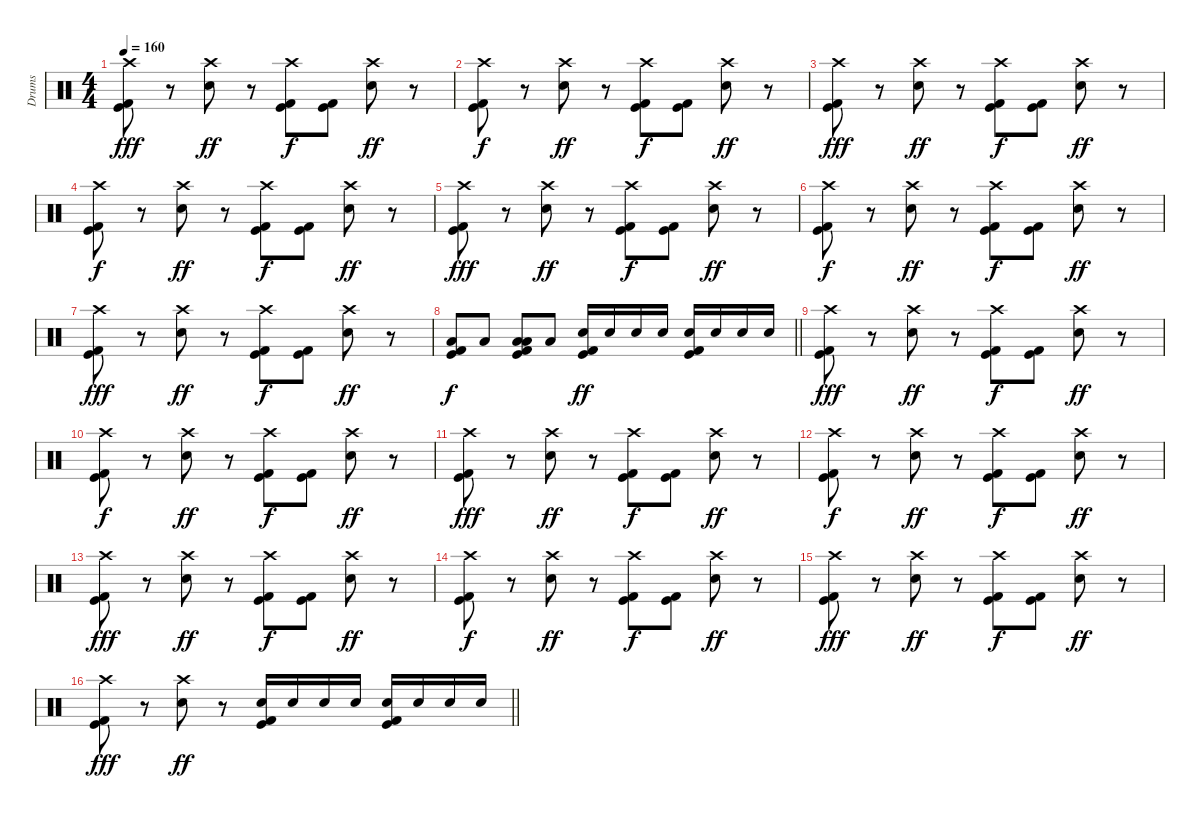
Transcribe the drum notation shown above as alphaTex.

\track ("Drums" "Drums") {instrument percussion}
\staff {score}
\articulation defaults
\ts (4 4)
\tempo 160
\clef neutral
\ks c
("Crash high (hit)" "Kick (hit)" "Kick (hit) 2").8{dy fff} r.8 ("Crash high (hit)" "Snare (hit) 2").8{dy ff} r.8 ("Crash high (hit)" "Kick (hit)" "Kick (hit) 2").8{dy f} ("Kick (hit)" "Kick (hit) 2").8 ("Crash high (hit)" "Snare (hit) 2").8{dy ff} r.8 |
("Crash high (hit)" "Kick (hit)" "Kick (hit) 2").8{dy f} r.8 ("Crash high (hit)" "Snare (hit) 2").8{dy ff} r.8 ("Crash high (hit)" "Kick (hit)" "Kick (hit) 2").8{dy f} ("Kick (hit)" "Kick (hit) 2").8 ("Crash high (hit)" "Snare (hit) 2").8{dy ff} r.8 |
("Crash high (hit)" "Kick (hit)" "Kick (hit) 2").8{dy fff} r.8 ("Crash high (hit)" "Snare (hit) 2").8{dy ff} r.8 ("Crash high (hit)" "Kick (hit)" "Kick (hit) 2").8{dy f} ("Kick (hit)" "Kick (hit) 2").8 ("Crash high (hit)" "Snare (hit) 2").8{dy ff} r.8 |
("Crash high (hit)" "Kick (hit)" "Kick (hit) 2").8{dy f} r.8 ("Crash high (hit)" "Snare (hit) 2").8{dy ff} r.8 ("Crash high (hit)" "Kick (hit)" "Kick (hit) 2").8{dy f} ("Kick (hit)" "Kick (hit) 2").8 ("Crash high (hit)" "Snare (hit) 2").8{dy ff} r.8 |
("Crash high (hit)" "Kick (hit)" "Kick (hit) 2").8{dy fff} r.8 ("Crash high (hit)" "Snare (hit) 2").8{dy ff} r.8 ("Crash high (hit)" "Kick (hit)" "Kick (hit) 2").8{dy f} ("Kick (hit)" "Kick (hit) 2").8 ("Crash high (hit)" "Snare (hit) 2").8{dy ff} r.8 |
("Crash high (hit)" "Kick (hit)" "Kick (hit) 2").8{dy f} r.8 ("Crash high (hit)" "Snare (hit) 2").8{dy ff} r.8 ("Crash high (hit)" "Kick (hit)" "Kick (hit) 2").8{dy f} ("Kick (hit)" "Kick (hit) 2").8 ("Crash high (hit)" "Snare (hit) 2").8{dy ff} r.8 |
("Crash high (hit)" "Kick (hit)" "Kick (hit) 2").8{dy fff} r.8 ("Crash high (hit)" "Snare (hit) 2").8{dy ff} r.8 ("Crash high (hit)" "Kick (hit)" "Kick (hit) 2").8{dy f} ("Kick (hit)" "Kick (hit) 2").8 ("Crash high (hit)" "Snare (hit) 2").8{dy ff} r.8 |
\barLineRight lightlight
("Low Floor Tom (hit)" "Kick (hit)" "Kick (hit) 2").8{dy f} "Low Floor Tom (hit)".8 ("Low Tom (hit)" "Low Floor Tom (hit)" "Kick (hit)" "Kick (hit) 2").8 "Low Floor Tom (hit)".8 ("Snare (hit) 2" "Kick (hit)" "Kick (hit) 2").16{dy ff} "Snare (hit) 2".16 "Snare (hit) 2".16 "Snare (hit) 2".16 ("Snare (hit) 2" "Kick (hit)" "Kick (hit) 2").16 "Snare (hit) 2".16 "Snare (hit) 2".16 "Snare (hit) 2".16 |
("Crash high (hit)" "Kick (hit)" "Kick (hit) 2").8{dy fff} r.8 ("Crash high (hit)" "Snare (hit) 2").8{dy ff} r.8 ("Crash high (hit)" "Kick (hit)" "Kick (hit) 2").8{dy f} ("Kick (hit)" "Kick (hit) 2").8 ("Crash high (hit)" "Snare (hit) 2").8{dy ff} r.8 |
("Crash high (hit)" "Kick (hit)" "Kick (hit) 2").8{dy f} r.8 ("Crash high (hit)" "Snare (hit) 2").8{dy ff} r.8 ("Crash high (hit)" "Kick (hit)" "Kick (hit) 2").8{dy f} ("Kick (hit)" "Kick (hit) 2").8 ("Crash high (hit)" "Snare (hit) 2").8{dy ff} r.8 |
("Crash high (hit)" "Kick (hit)" "Kick (hit) 2").8{dy fff} r.8 ("Crash high (hit)" "Snare (hit) 2").8{dy ff} r.8 ("Crash high (hit)" "Kick (hit)" "Kick (hit) 2").8{dy f} ("Kick (hit)" "Kick (hit) 2").8 ("Crash high (hit)" "Snare (hit) 2").8{dy ff} r.8 |
("Crash high (hit)" "Kick (hit)" "Kick (hit) 2").8{dy f} r.8 ("Crash high (hit)" "Snare (hit) 2").8{dy ff} r.8 ("Crash high (hit)" "Kick (hit)" "Kick (hit) 2").8{dy f} ("Kick (hit)" "Kick (hit) 2").8 ("Crash high (hit)" "Snare (hit) 2").8{dy ff} r.8 |
("Crash high (hit)" "Kick (hit)" "Kick (hit) 2").8{dy fff} r.8 ("Crash high (hit)" "Snare (hit) 2").8{dy ff} r.8 ("Crash high (hit)" "Kick (hit)" "Kick (hit) 2").8{dy f} ("Kick (hit)" "Kick (hit) 2").8 ("Crash high (hit)" "Snare (hit) 2").8{dy ff} r.8 |
("Crash high (hit)" "Kick (hit)" "Kick (hit) 2").8{dy f} r.8 ("Crash high (hit)" "Snare (hit) 2").8{dy ff} r.8 ("Crash high (hit)" "Kick (hit)" "Kick (hit) 2").8{dy f} ("Kick (hit)" "Kick (hit) 2").8 ("Crash high (hit)" "Snare (hit) 2").8{dy ff} r.8 |
("Crash high (hit)" "Kick (hit)" "Kick (hit) 2").8{dy fff} r.8 ("Crash high (hit)" "Snare (hit) 2").8{dy ff} r.8 ("Crash high (hit)" "Kick (hit)" "Kick (hit) 2").8{dy f} ("Kick (hit)" "Kick (hit) 2").8 ("Crash high (hit)" "Snare (hit) 2").8{dy ff} r.8 |
\barLineRight lightlight
("Crash high (hit)" "Kick (hit)" "Kick (hit) 2").8{dy fff} r.8 ("Crash high (hit)" "Snare (hit) 2").8{dy ff} r.8 ("Snare (hit) 2" "Kick (hit)" "Kick (hit) 2").16 "Snare (hit) 2".16 "Snare (hit) 2".16 "Snare (hit) 2".16 ("Snare (hit) 2" "Kick (hit)" "Kick (hit) 2").16 "Snare (hit) 2".16 "Snare (hit) 2".16 "Snare (hit) 2".16
